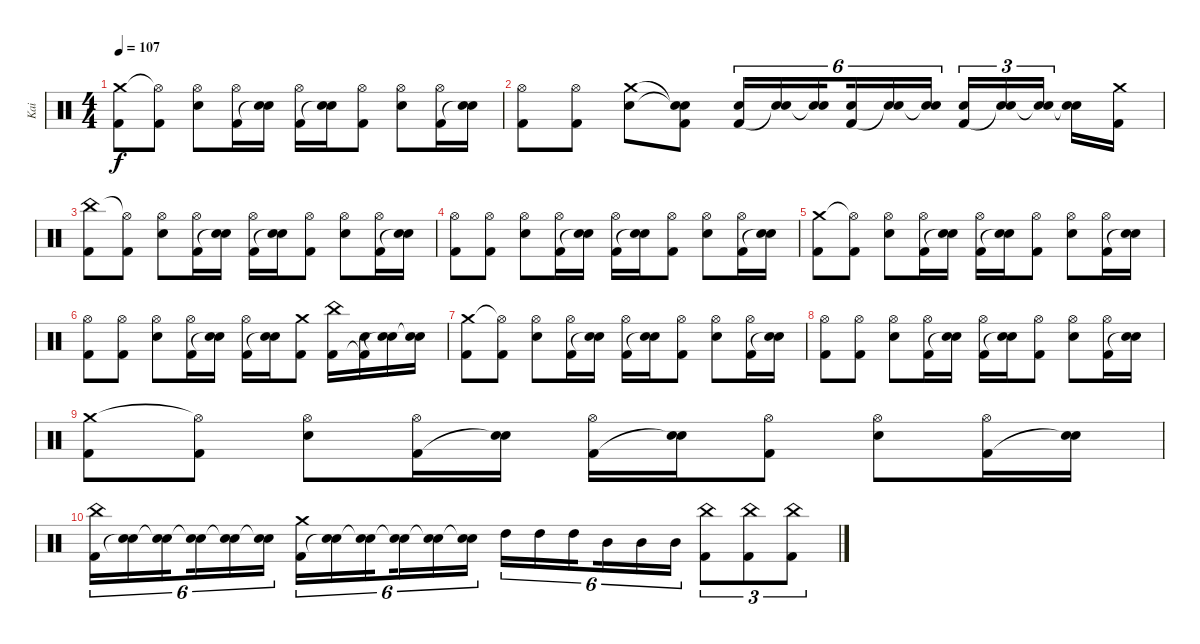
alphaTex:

\track ("Kai" "Kai") {instrument percussion}
\staff {score}
\articulation defaults
\ts (4 4)
\tempo 107
\clef neutral
\ks c
("Crash medium (hit)" "Kick (hit) 2").8{dy f} ("Hi-Hat (open)"{t} "Kick (hit) 2").8 ("Hi-Hat (open)" "Snare (hit) 2").8 ("Hi-Hat (open)" "Kick (hit) 2").16 ("Snare (hit) 2" "Snare (hit)"{t}).16 ("Hi-Hat (open)" "Kick (hit) 2").16 ("Snare (hit) 2" "Snare (hit)"{t}).16 ("Hi-Hat (open)" "Kick (hit) 2").8 ("Hi-Hat (open)" "Snare (hit) 2").8 ("Hi-Hat (open)" "Kick (hit) 2").16 ("Snare (hit) 2" "Snare (hit)"{t}).16 |
("Hi-Hat (open)" "Kick (hit) 2").8 ("Hi-Hat (open)" "Kick (hit) 2").8 ("Crash medium (hit)" "Snare (hit) 2").8 ("Snare (hit)"{t} "Snare (hit)"{t} "Kick (hit) 2").8 ("Snare (hit) 2" "Kick (hit) 2").16{tu (6 4)} ("Snare (hit) 2" "Snare (hit)"{t}).16{tu (6 4)} ("Snare (hit) 2" "Snare (hit)"{t}).16{tu (6 4) beam splitsecondary} ("Snare (hit) 2" "Kick (hit) 2").16{tu (6 4)} ("Snare (hit) 2" "Snare (hit)"{t}).16{tu (6 4)} ("Snare (hit) 2" "Snare (hit)"{t}).16{tu (6 4)} ("Snare (hit) 2" "Kick (hit) 2").16{tu (3 2)} ("Snare (hit) 2" "Snare (hit)"{t}).16{tu (3 2)} ("Snare (hit) 2" "Snare (hit)"{t}).16{tu (3 2) beam splitsecondary} ("Snare (hit) 2" "Snare (hit)"{t}).16 ("Crash medium (hit)" "Kick (hit) 2").16 |
("China (hit)" "Kick (hit) 2").8 ("Hi-Hat (open)"{t} "Kick (hit) 2").8 ("Hi-Hat (open)" "Snare (hit) 2").8 ("Hi-Hat (open)" "Kick (hit) 2").16 ("Snare (hit) 2" "Snare (hit)"{t}).16 ("Hi-Hat (open)" "Kick (hit) 2").16 ("Snare (hit) 2" "Snare (hit)"{t}).16 ("Hi-Hat (open)" "Kick (hit) 2").8 ("Hi-Hat (open)" "Snare (hit) 2").8 ("Hi-Hat (open)" "Kick (hit) 2").16 ("Snare (hit) 2" "Snare (hit)"{t}).16 |
("Hi-Hat (open)" "Kick (hit) 2").8 ("Hi-Hat (open)" "Kick (hit) 2").8 ("Hi-Hat (open)" "Snare (hit) 2").8 ("Hi-Hat (open)" "Kick (hit) 2").16 ("Snare (hit) 2" "Snare (hit)"{t}).16 ("Hi-Hat (open)" "Kick (hit) 2").16 ("Snare (hit) 2" "Snare (hit)"{t}).16 ("Hi-Hat (open)" "Kick (hit) 2").8 ("Hi-Hat (open)" "Snare (hit) 2").8 ("Hi-Hat (open)" "Kick (hit) 2").16 ("Snare (hit) 2" "Snare (hit)"{t}).16 |
("Crash medium (hit)" "Kick (hit) 2").8 ("Hi-Hat (open)"{t} "Kick (hit) 2").8 ("Hi-Hat (open)" "Snare (hit) 2").8 ("Hi-Hat (open)" "Kick (hit) 2").16 ("Snare (hit) 2" "Snare (hit)"{t}).16 ("Hi-Hat (open)" "Kick (hit) 2").16 ("Snare (hit) 2" "Snare (hit)"{t}).16 ("Hi-Hat (open)" "Kick (hit) 2").8 ("Hi-Hat (open)" "Snare (hit) 2").8 ("Hi-Hat (open)" "Kick (hit) 2").16 ("Snare (hit) 2" "Snare (hit)"{t}).16 |
("Hi-Hat (open)" "Kick (hit) 2").8 ("Hi-Hat (open)" "Kick (hit) 2").8 ("Hi-Hat (open)" "Snare (hit) 2").8 ("Hi-Hat (open)" "Kick (hit) 2").16 ("Snare (hit) 2" "Snare (hit)"{t}).16 ("Hi-Hat (open)" "Kick (hit) 2").16 ("Snare (hit) 2" "Snare (hit)"{t}).16 ("Crash medium (hit)" "Kick (hit) 2").8 ("China (hit)" "Kick (hit) 2").16 ("Snare (hit) 2" "Kick (hit) 2"{t}).16 ("Snare (hit) 2" "Snare (hit)"{t}).16 ("Snare (hit) 2" "Snare (hit)"{t}).16 |
("Crash medium (hit)" "Kick (hit) 2").8 ("Hi-Hat (open)"{t} "Kick (hit) 2").8 ("Hi-Hat (open)" "Snare (hit) 2").8 ("Hi-Hat (open)" "Kick (hit) 2").16 ("Snare (hit) 2" "Snare (hit)"{t}).16 ("Hi-Hat (open)" "Kick (hit) 2").16 ("Snare (hit) 2" "Snare (hit)"{t}).16 ("Hi-Hat (open)" "Kick (hit) 2").8 ("Hi-Hat (open)" "Snare (hit) 2").8 ("Hi-Hat (open)" "Kick (hit) 2").16 ("Snare (hit) 2" "Snare (hit)"{t}).16 |
("Hi-Hat (open)" "Kick (hit) 2").8 ("Hi-Hat (open)" "Kick (hit) 2").8 ("Hi-Hat (open)" "Snare (hit) 2").8 ("Hi-Hat (open)" "Kick (hit) 2").16 ("Snare (hit) 2" "Snare (hit)"{t}).16 ("Hi-Hat (open)" "Kick (hit) 2").16 ("Snare (hit) 2" "Snare (hit)"{t}).16 ("Hi-Hat (open)" "Kick (hit) 2").8 ("Hi-Hat (open)" "Snare (hit) 2").8 ("Hi-Hat (open)" "Kick (hit) 2").16 ("Snare (hit) 2" "Snare (hit)"{t}).16 |
("Crash medium (hit)" "Kick (hit) 2").8 ("Hi-Hat (open)"{t} "Kick (hit) 2").8 ("Hi-Hat (open)" "Snare (hit) 2").8 ("Hi-Hat (open)" "Kick (hit) 2").16 ("Snare (hit) 2" "Snare (hit)"{t}).16 ("Hi-Hat (open)" "Kick (hit) 2").16 ("Snare (hit) 2" "Snare (hit)"{t}).16 ("Hi-Hat (open)" "Kick (hit) 2").8 ("Hi-Hat (open)" "Snare (hit) 2").8 ("Hi-Hat (open)" "Kick (hit) 2").16 ("Snare (hit) 2" "Snare (hit)"{t}).16 |
("China (hit)" "Kick (hit) 2").16{tu (6 4)} ("Snare (hit) 2" "Snare (hit)"{t}).16{tu (6 4)} ("Snare (hit) 2" "Snare (hit)"{t}).16{tu (6 4) beam splitsecondary} ("Snare (hit) 2" "Snare (hit)"{t}).16{tu (6 4)} ("Snare (hit) 2" "Snare (hit)"{t}).16{tu (6 4)} ("Snare (hit) 2" "Snare (hit)"{t}).16{tu (6 4)} ("Crash medium (hit)" "Kick (hit) 2").16{tu (6 4)} ("Snare (hit) 2" "Snare (hit)"{t}).16{tu (6 4)} ("Snare (hit) 2" "Snare (hit)"{t}).16{tu (6 4) beam splitsecondary} ("Snare (hit) 2" "Snare (hit)"{t}).16{tu (6 4)} ("Snare (hit) 2" "Snare (hit)"{t}).16{tu (6 4)} ("Snare (hit) 2" "Snare (hit)"{t}).16{tu (6 4)} "High Tom (hit)".16{tu (6 4)} "High Tom (hit)".16{tu (6 4)} "High Tom (hit)".16{tu (6 4) beam splitsecondary} "Mid Tom (hit)".16{tu (6 4)} "Mid Tom (hit)".16{tu (6 4)} "Mid Tom (hit)".16{tu (6 4)} ("China (hit)" "Kick (hit) 2").8{tu (3 2)} ("China (hit)" "Kick (hit) 2").8{tu (3 2)} ("China (hit)" "Kick (hit) 2").8{tu (3 2)}
